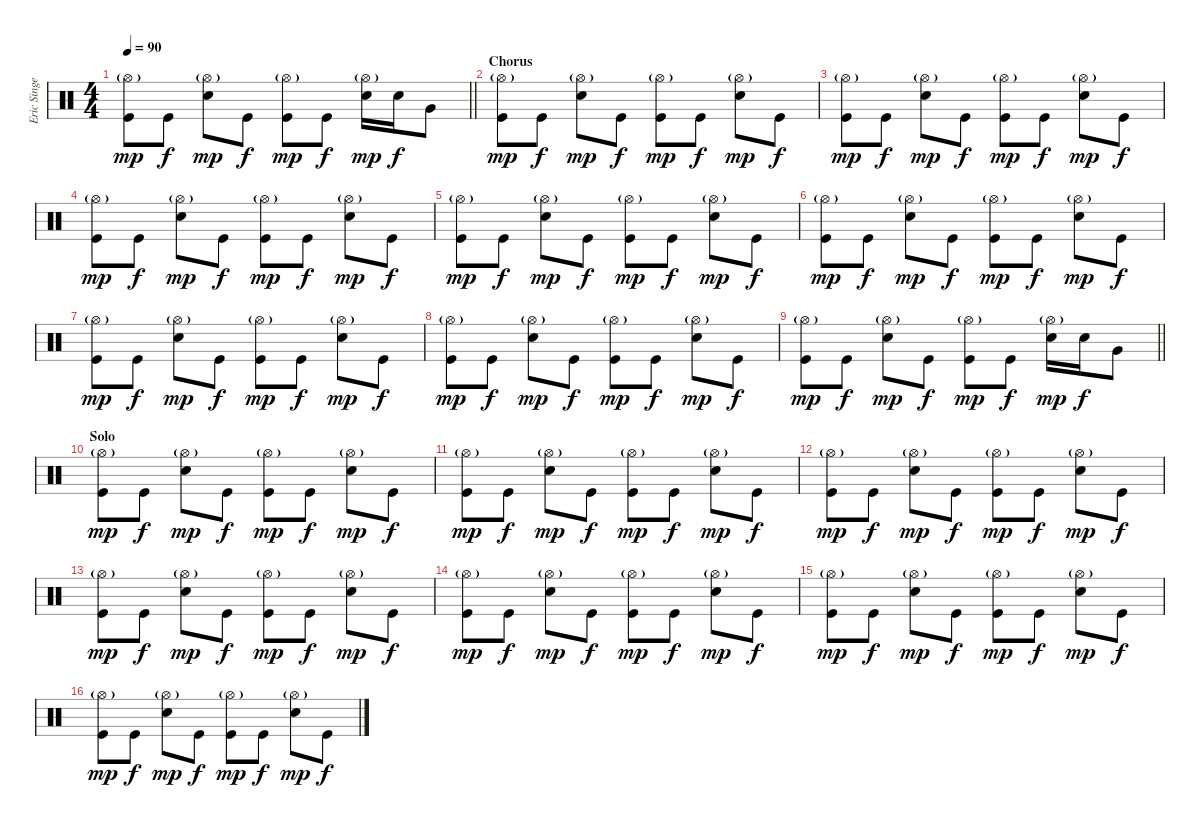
\track ("Eric Singer (Drums)" "Eric Singe") {instrument percussion}
\staff {score}
\articulation defaults
\ts (4 4)
\tempo 90
\clef neutral
\barLineRight lightlight
\ks c
("Hi-Hat (open)"{g} "Kick (hit)").8{dy mp} "Kick (hit)".8{dy f} ("Hi-Hat (open)"{g} "Snare (hit) 2").8{dy mp} "Kick (hit)".8{dy f} ("Hi-Hat (open)"{g} "Kick (hit)").8{dy mp} "Kick (hit)".8{dy f} ("Hi-Hat (open)"{g} "Snare (hit) 2").16{dy mp} "Snare (hit) 2".16{dy f} "Very Low Tom (hit)".8 |
\section ("" "Chorus")
("Hi-Hat (open)"{g} "Kick (hit)").8{dy mp} "Kick (hit)".8{dy f} ("Hi-Hat (open)"{g} "Snare (hit) 2").8{dy mp} "Kick (hit)".8{dy f} ("Hi-Hat (open)"{g} "Kick (hit)").8{dy mp} "Kick (hit)".8{dy f} ("Hi-Hat (open)"{g} "Snare (hit) 2").8{dy mp} "Kick (hit)".8{dy f} |
("Hi-Hat (open)"{g} "Kick (hit)").8{dy mp} "Kick (hit)".8{dy f} ("Hi-Hat (open)"{g} "Snare (hit) 2").8{dy mp} "Kick (hit)".8{dy f} ("Hi-Hat (open)"{g} "Kick (hit)").8{dy mp} "Kick (hit)".8{dy f} ("Hi-Hat (open)"{g} "Snare (hit) 2").8{dy mp} "Kick (hit)".8{dy f} |
("Hi-Hat (open)"{g} "Kick (hit)").8{dy mp} "Kick (hit)".8{dy f} ("Hi-Hat (open)"{g} "Snare (hit) 2").8{dy mp} "Kick (hit)".8{dy f} ("Hi-Hat (open)"{g} "Kick (hit)").8{dy mp} "Kick (hit)".8{dy f} ("Hi-Hat (open)"{g} "Snare (hit) 2").8{dy mp} "Kick (hit)".8{dy f} |
("Hi-Hat (open)"{g} "Kick (hit)").8{dy mp} "Kick (hit)".8{dy f} ("Hi-Hat (open)"{g} "Snare (hit) 2").8{dy mp} "Kick (hit)".8{dy f} ("Hi-Hat (open)"{g} "Kick (hit)").8{dy mp} "Kick (hit)".8{dy f} ("Hi-Hat (open)"{g} "Snare (hit) 2").8{dy mp} "Kick (hit)".8{dy f} |
("Hi-Hat (open)"{g} "Kick (hit)").8{dy mp} "Kick (hit)".8{dy f} ("Hi-Hat (open)"{g} "Snare (hit) 2").8{dy mp} "Kick (hit)".8{dy f} ("Hi-Hat (open)"{g} "Kick (hit)").8{dy mp} "Kick (hit)".8{dy f} ("Hi-Hat (open)"{g} "Snare (hit) 2").8{dy mp} "Kick (hit)".8{dy f} |
("Hi-Hat (open)"{g} "Kick (hit)").8{dy mp} "Kick (hit)".8{dy f} ("Hi-Hat (open)"{g} "Snare (hit) 2").8{dy mp} "Kick (hit)".8{dy f} ("Hi-Hat (open)"{g} "Kick (hit)").8{dy mp} "Kick (hit)".8{dy f} ("Hi-Hat (open)"{g} "Snare (hit) 2").8{dy mp} "Kick (hit)".8{dy f} |
("Hi-Hat (open)"{g} "Kick (hit)").8{dy mp} "Kick (hit)".8{dy f} ("Hi-Hat (open)"{g} "Snare (hit) 2").8{dy mp} "Kick (hit)".8{dy f} ("Hi-Hat (open)"{g} "Kick (hit)").8{dy mp} "Kick (hit)".8{dy f} ("Hi-Hat (open)"{g} "Snare (hit) 2").8{dy mp} "Kick (hit)".8{dy f} |
\barLineRight lightlight
("Hi-Hat (open)"{g} "Kick (hit)").8{dy mp} "Kick (hit)".8{dy f} ("Hi-Hat (open)"{g} "Snare (hit) 2").8{dy mp} "Kick (hit)".8{dy f} ("Hi-Hat (open)"{g} "Kick (hit)").8{dy mp} "Kick (hit)".8{dy f} ("Hi-Hat (open)"{g} "Snare (hit) 2").16{dy mp} "Snare (hit) 2".16{dy f} "Very Low Tom (hit)".8 |
\section ("" "Solo")
("Hi-Hat (open)"{g} "Kick (hit)").8{dy mp} "Kick (hit)".8{dy f} ("Hi-Hat (open)"{g} "Snare (hit) 2").8{dy mp} "Kick (hit)".8{dy f} ("Hi-Hat (open)"{g} "Kick (hit)").8{dy mp} "Kick (hit)".8{dy f} ("Hi-Hat (open)"{g} "Snare (hit) 2").8{dy mp} "Kick (hit)".8{dy f} |
("Hi-Hat (open)"{g} "Kick (hit)").8{dy mp} "Kick (hit)".8{dy f} ("Hi-Hat (open)"{g} "Snare (hit) 2").8{dy mp} "Kick (hit)".8{dy f} ("Hi-Hat (open)"{g} "Kick (hit)").8{dy mp} "Kick (hit)".8{dy f} ("Hi-Hat (open)"{g} "Snare (hit) 2").8{dy mp} "Kick (hit)".8{dy f} |
("Hi-Hat (open)"{g} "Kick (hit)").8{dy mp} "Kick (hit)".8{dy f} ("Hi-Hat (open)"{g} "Snare (hit) 2").8{dy mp} "Kick (hit)".8{dy f} ("Hi-Hat (open)"{g} "Kick (hit)").8{dy mp} "Kick (hit)".8{dy f} ("Hi-Hat (open)"{g} "Snare (hit) 2").8{dy mp} "Kick (hit)".8{dy f} |
("Hi-Hat (open)"{g} "Kick (hit)").8{dy mp} "Kick (hit)".8{dy f} ("Hi-Hat (open)"{g} "Snare (hit) 2").8{dy mp} "Kick (hit)".8{dy f} ("Hi-Hat (open)"{g} "Kick (hit)").8{dy mp} "Kick (hit)".8{dy f} ("Hi-Hat (open)"{g} "Snare (hit) 2").8{dy mp} "Kick (hit)".8{dy f} |
("Hi-Hat (open)"{g} "Kick (hit)").8{dy mp} "Kick (hit)".8{dy f} ("Hi-Hat (open)"{g} "Snare (hit) 2").8{dy mp} "Kick (hit)".8{dy f} ("Hi-Hat (open)"{g} "Kick (hit)").8{dy mp} "Kick (hit)".8{dy f} ("Hi-Hat (open)"{g} "Snare (hit) 2").8{dy mp} "Kick (hit)".8{dy f} |
("Hi-Hat (open)"{g} "Kick (hit)").8{dy mp} "Kick (hit)".8{dy f} ("Hi-Hat (open)"{g} "Snare (hit) 2").8{dy mp} "Kick (hit)".8{dy f} ("Hi-Hat (open)"{g} "Kick (hit)").8{dy mp} "Kick (hit)".8{dy f} ("Hi-Hat (open)"{g} "Snare (hit) 2").8{dy mp} "Kick (hit)".8{dy f} |
("Hi-Hat (open)"{g} "Kick (hit)").8{dy mp} "Kick (hit)".8{dy f} ("Hi-Hat (open)"{g} "Snare (hit) 2").8{dy mp} "Kick (hit)".8{dy f} ("Hi-Hat (open)"{g} "Kick (hit)").8{dy mp} "Kick (hit)".8{dy f} ("Hi-Hat (open)"{g} "Snare (hit) 2").8{dy mp} "Kick (hit)".8{dy f}
